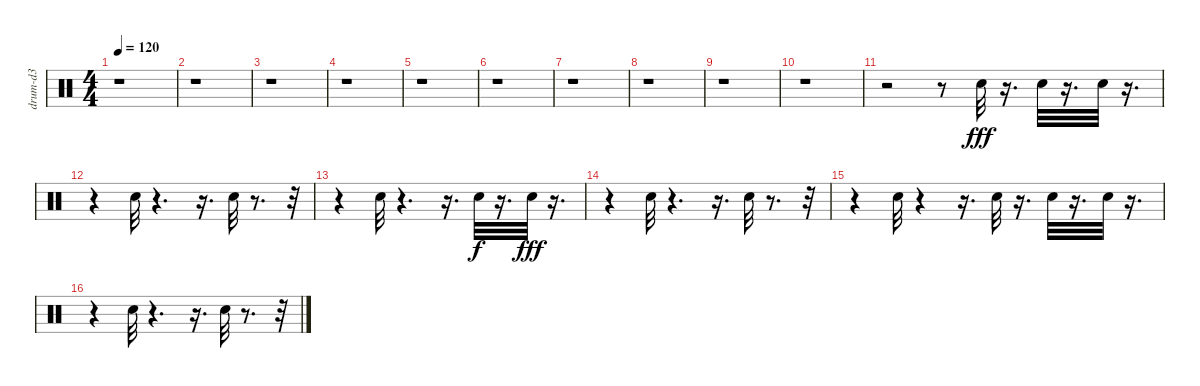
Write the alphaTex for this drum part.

\track ("drum-d3" "drum-d3") {instrument percussion}
\staff {score}
\articulation defaults
\ts (4 4)
\tempo 120
\clef neutral
\ks c
r.1{dy fff} |
r.1 |
r.1 |
r.1 |
r.1 |
r.1 |
r.1 |
r.1 |
r.1 |
r.1 |
r.2 r.8 "Snare (hit) 2".32 r.16{d} "Snare (hit) 2".32 r.16{d} "Snare (hit) 2".32 r.16{d} |
r.4 "Snare (hit) 2".32 r.4{d} r.16{d} "Snare (hit) 2".32 r.8{d} r.32 |
r.4 "Snare (hit) 2".32 r.4{d} r.16{d} "Snare (hit) 2".32{dy f} r.16{d} "Snare (hit) 2".32{dy fff} r.16{d} |
r.4 "Snare (hit) 2".32 r.4{d} r.16{d} "Snare (hit) 2".32 r.8{d} r.32 |
r.4 "Snare (hit) 2".32 r.4 r.16{d} "Snare (hit) 2".32 r.16{d} "Snare (hit) 2".32 r.16{d} "Snare (hit) 2".32 r.16{d} |
r.4 "Snare (hit) 2".32 r.4{d} r.16{d} "Snare (hit) 2".32 r.8{d} r.32
